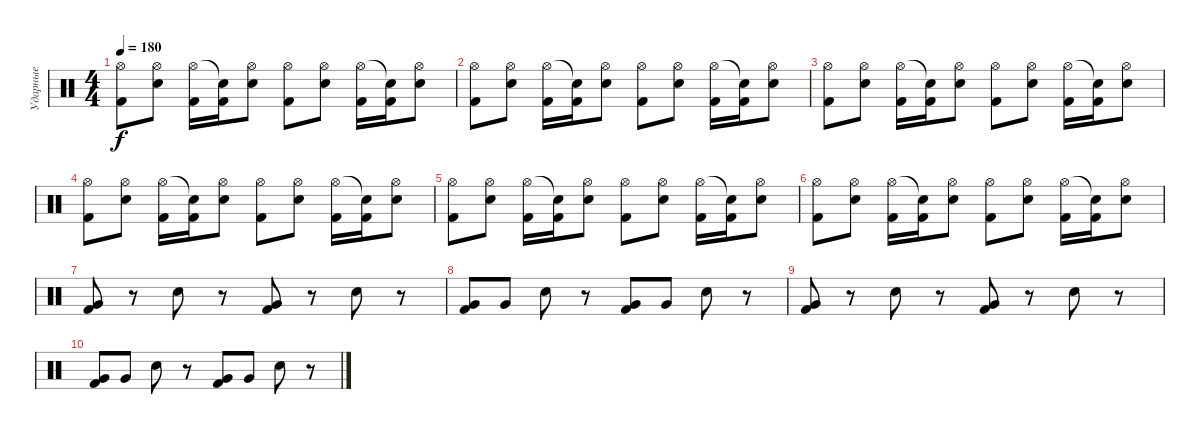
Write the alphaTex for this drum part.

\track ("Ударные" "Ударные") {instrument percussion}
\staff {score}
\articulation defaults
\ts (4 4)
\tempo 180
\clef neutral
\ks c
("Hi-Hat (open)" "Kick (hit) 2").8{dy f} ("Hi-Hat (open)" "Snare (hit) 2").8 ("Hi-Hat (open)" "Kick (hit) 2").16 ("Snare (hit)"{t} "Kick (hit) 2").16 ("Hi-Hat (open)" "Snare (hit) 2").8 ("Hi-Hat (open)" "Kick (hit) 2").8 ("Hi-Hat (open)" "Snare (hit) 2").8 ("Hi-Hat (open)" "Kick (hit) 2").16 ("Snare (hit)"{t} "Kick (hit) 2").16 ("Hi-Hat (open)" "Snare (hit) 2").8 |
("Hi-Hat (open)" "Kick (hit) 2").8 ("Hi-Hat (open)" "Snare (hit) 2").8 ("Hi-Hat (open)" "Kick (hit) 2").16 ("Snare (hit)"{t} "Kick (hit) 2").16 ("Hi-Hat (open)" "Snare (hit) 2").8 ("Hi-Hat (open)" "Kick (hit) 2").8 ("Hi-Hat (open)" "Snare (hit) 2").8 ("Hi-Hat (open)" "Kick (hit) 2").16 ("Snare (hit)"{t} "Kick (hit) 2").16 ("Hi-Hat (open)" "Snare (hit) 2").8 |
("Hi-Hat (open)" "Kick (hit) 2").8 ("Hi-Hat (open)" "Snare (hit) 2").8 ("Hi-Hat (open)" "Kick (hit) 2").16 ("Snare (hit)"{t} "Kick (hit) 2").16 ("Hi-Hat (open)" "Snare (hit) 2").8 ("Hi-Hat (open)" "Kick (hit) 2").8 ("Hi-Hat (open)" "Snare (hit) 2").8 ("Hi-Hat (open)" "Kick (hit) 2").16 ("Snare (hit)"{t} "Kick (hit) 2").16 ("Hi-Hat (open)" "Snare (hit) 2").8 |
("Hi-Hat (open)" "Kick (hit) 2").8 ("Hi-Hat (open)" "Snare (hit) 2").8 ("Hi-Hat (open)" "Kick (hit) 2").16 ("Snare (hit)"{t} "Kick (hit) 2").16 ("Hi-Hat (open)" "Snare (hit) 2").8 ("Hi-Hat (open)" "Kick (hit) 2").8 ("Hi-Hat (open)" "Snare (hit) 2").8 ("Hi-Hat (open)" "Kick (hit) 2").16 ("Snare (hit)"{t} "Kick (hit) 2").16 ("Hi-Hat (open)" "Snare (hit) 2").8 |
("Hi-Hat (open)" "Kick (hit) 2").8 ("Hi-Hat (open)" "Snare (hit) 2").8 ("Hi-Hat (open)" "Kick (hit) 2").16 ("Snare (hit)"{t} "Kick (hit) 2").16 ("Hi-Hat (open)" "Snare (hit) 2").8 ("Hi-Hat (open)" "Kick (hit) 2").8 ("Hi-Hat (open)" "Snare (hit) 2").8 ("Hi-Hat (open)" "Kick (hit) 2").16 ("Snare (hit)"{t} "Kick (hit) 2").16 ("Hi-Hat (open)" "Snare (hit) 2").8 |
("Hi-Hat (open)" "Kick (hit) 2").8 ("Hi-Hat (open)" "Snare (hit) 2").8 ("Hi-Hat (open)" "Kick (hit) 2").16 ("Snare (hit)"{t} "Kick (hit) 2").16 ("Hi-Hat (open)" "Snare (hit) 2").8 ("Hi-Hat (open)" "Kick (hit) 2").8 ("Hi-Hat (open)" "Snare (hit) 2").8 ("Hi-Hat (open)" "Kick (hit) 2").16 ("Snare (hit)"{t} "Kick (hit) 2").16 ("Hi-Hat (open)" "Snare (hit) 2").8 |
("Very Low Tom (hit)" "Kick (hit) 2").8 r.8 "Electric Snare (hit)".8 r.8 ("Very Low Tom (hit)" "Kick (hit) 2").8 r.8 "Electric Snare (hit)".8 r.8 |
("Very Low Tom (hit)" "Kick (hit) 2").8 "Very Low Tom (hit)".8 "Electric Snare (hit)".8 r.8 ("Very Low Tom (hit)" "Kick (hit) 2").8 "Very Low Tom (hit)".8 "Electric Snare (hit)".8 r.8 |
("Very Low Tom (hit)" "Kick (hit) 2").8 r.8 "Electric Snare (hit)".8 r.8 ("Very Low Tom (hit)" "Kick (hit) 2").8 r.8 "Electric Snare (hit)".8 r.8 |
("Very Low Tom (hit)" "Kick (hit) 2").8 "Very Low Tom (hit)".8 "Electric Snare (hit)".8 r.8 ("Very Low Tom (hit)" "Kick (hit) 2").8 "Very Low Tom (hit)".8 "Electric Snare (hit)".8 r.8
